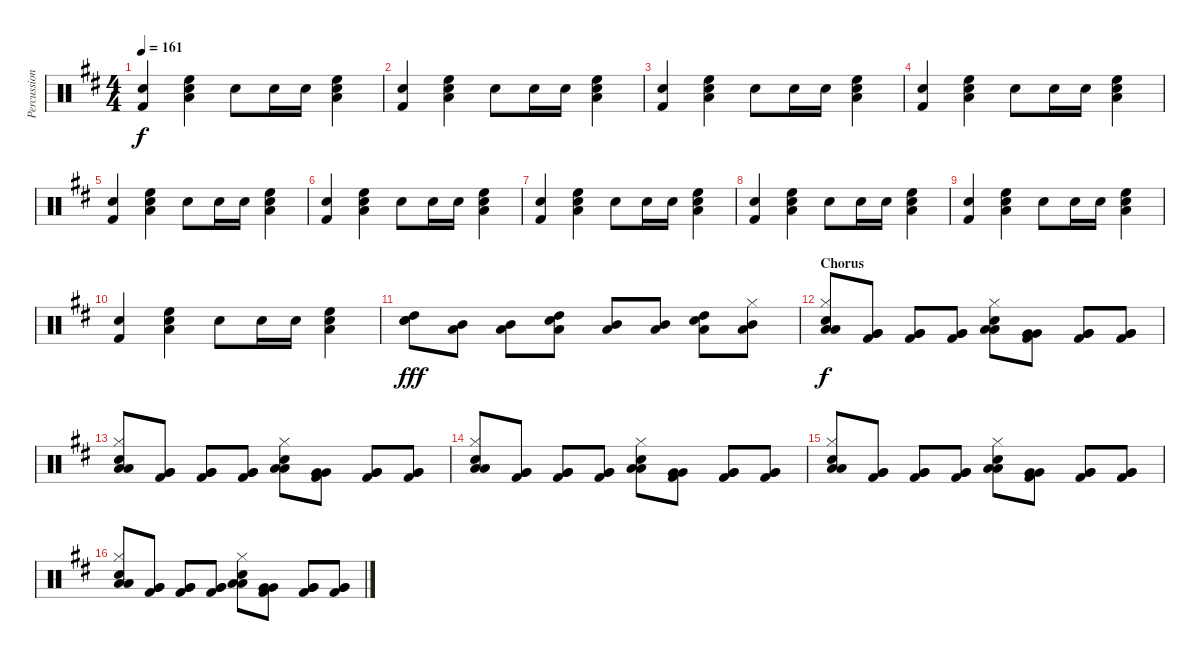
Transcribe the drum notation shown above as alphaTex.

\track ("Percussion" "Percussion") {instrument percussion}
\staff {score}
\articulation defaults
\ts (4 4)
\tempo 161
\clef neutral
\ks d
("Kick (hit) 2" "Electric Snare (hit)").4{dy f} ("Low Tom (hit)" "High Floor Tom (hit)" "Electric Snare (hit)").4 "Electric Snare (hit)".8 "Electric Snare (hit)".16 "Electric Snare (hit)".16 ("Low Tom (hit)" "High Floor Tom (hit)" "Electric Snare (hit)").4 |
("Kick (hit) 2" "Electric Snare (hit)").4 ("Low Tom (hit)" "High Floor Tom (hit)" "Electric Snare (hit)").4 "Electric Snare (hit)".8 "Electric Snare (hit)".16 "Electric Snare (hit)".16 ("Low Tom (hit)" "High Floor Tom (hit)" "Electric Snare (hit)").4 |
("Kick (hit) 2" "Electric Snare (hit)").4 ("Low Tom (hit)" "High Floor Tom (hit)" "Electric Snare (hit)").4 "Electric Snare (hit)".8 "Electric Snare (hit)".16 "Electric Snare (hit)".16 ("Low Tom (hit)" "High Floor Tom (hit)" "Electric Snare (hit)").4 |
("Kick (hit) 2" "Electric Snare (hit)").4 ("Low Tom (hit)" "High Floor Tom (hit)" "Electric Snare (hit)").4 "Electric Snare (hit)".8 "Electric Snare (hit)".16 "Electric Snare (hit)".16 ("Low Tom (hit)" "High Floor Tom (hit)" "Electric Snare (hit)").4 |
("Kick (hit) 2" "Electric Snare (hit)").4 ("Low Tom (hit)" "High Floor Tom (hit)" "Electric Snare (hit)").4 "Electric Snare (hit)".8 "Electric Snare (hit)".16 "Electric Snare (hit)".16 ("Low Tom (hit)" "High Floor Tom (hit)" "Electric Snare (hit)").4 |
("Kick (hit) 2" "Electric Snare (hit)").4 ("Low Tom (hit)" "High Floor Tom (hit)" "Electric Snare (hit)").4 "Electric Snare (hit)".8 "Electric Snare (hit)".16 "Electric Snare (hit)".16 ("Low Tom (hit)" "High Floor Tom (hit)" "Electric Snare (hit)").4 |
("Kick (hit) 2" "Electric Snare (hit)").4 ("Low Tom (hit)" "High Floor Tom (hit)" "Electric Snare (hit)").4 "Electric Snare (hit)".8 "Electric Snare (hit)".16 "Electric Snare (hit)".16 ("Low Tom (hit)" "High Floor Tom (hit)" "Electric Snare (hit)").4 |
("Kick (hit) 2" "Electric Snare (hit)").4 ("Low Tom (hit)" "High Floor Tom (hit)" "Electric Snare (hit)").4 "Electric Snare (hit)".8 "Electric Snare (hit)".16 "Electric Snare (hit)".16 ("Low Tom (hit)" "High Floor Tom (hit)" "Electric Snare (hit)").4 |
("Kick (hit) 2" "Electric Snare (hit)").4 ("Low Tom (hit)" "High Floor Tom (hit)" "Electric Snare (hit)").4 "Electric Snare (hit)".8 "Electric Snare (hit)".16 "Electric Snare (hit)".16 ("Low Tom (hit)" "High Floor Tom (hit)" "Electric Snare (hit)").4 |
("Kick (hit) 2" "Electric Snare (hit)").4 ("Low Tom (hit)" "High Floor Tom (hit)" "Electric Snare (hit)").4 "Electric Snare (hit)".8 "Electric Snare (hit)".16 "Electric Snare (hit)".16 ("Low Tom (hit)" "High Floor Tom (hit)" "Electric Snare (hit)").4 |
("Electric Snare (hit)" "Electric Snare (hit)" "High Tom (hit)").8{dy fff} ("Mid Tom (hit)" "Low Tom (hit)").8 ("Mid Tom (hit)" "Low Tom (hit)").8 ("Electric Snare (hit)" "Low Tom (hit)" "High Tom (hit)").8 ("Mid Tom (hit)" "Low Tom (hit)").8 ("Mid Tom (hit)" "Low Tom (hit)").8 ("Electric Snare (hit)" "Low Tom (hit)" "High Tom (hit)").8 ("Hi-Hat (closed)" "Mid Tom (hit)" "Low Tom (hit)").8 |
\section ("" "Chorus")
("Hi-Hat (closed)" "Low Floor Tom (hit)" "Low Floor Tom (hit)" "Electric Snare (hit)").8{dy f} ("Kick (hit) 2" "Very Low Tom (hit)" "Very Low Tom (hit)").8 ("Kick (hit) 2" "Very Low Tom (hit)" "Very Low Tom (hit)").8 ("Kick (hit) 2" "Very Low Tom (hit)" "Very Low Tom (hit)").8 ("Hi-Hat (closed)" "Low Tom (hit)" "Low Tom (hit)" "Electric Snare (hit)").8 ("Kick (hit) 2" "Very Low Tom (hit)" "Very Low Tom (hit)").8 ("Kick (hit) 2" "Very Low Tom (hit)" "Very Low Tom (hit)").8 ("Kick (hit) 2" "Very Low Tom (hit)" "Very Low Tom (hit)").8 |
("Hi-Hat (closed)" "Low Floor Tom (hit)" "Low Floor Tom (hit)" "Electric Snare (hit)").8 ("Kick (hit) 2" "Very Low Tom (hit)" "Very Low Tom (hit)").8 ("Kick (hit) 2" "Very Low Tom (hit)" "Very Low Tom (hit)").8 ("Kick (hit) 2" "Very Low Tom (hit)" "Very Low Tom (hit)").8 ("Hi-Hat (closed)" "Low Tom (hit)" "Low Tom (hit)" "Electric Snare (hit)").8 ("Kick (hit) 2" "Very Low Tom (hit)" "Very Low Tom (hit)").8 ("Kick (hit) 2" "Very Low Tom (hit)" "Very Low Tom (hit)").8 ("Kick (hit) 2" "Very Low Tom (hit)" "Very Low Tom (hit)").8 |
("Hi-Hat (closed)" "Low Floor Tom (hit)" "Low Floor Tom (hit)" "Electric Snare (hit)").8 ("Kick (hit) 2" "Very Low Tom (hit)" "Very Low Tom (hit)").8 ("Kick (hit) 2" "Very Low Tom (hit)" "Very Low Tom (hit)").8 ("Kick (hit) 2" "Very Low Tom (hit)" "Very Low Tom (hit)").8 ("Hi-Hat (closed)" "Low Tom (hit)" "Low Tom (hit)" "Electric Snare (hit)").8 ("Kick (hit) 2" "Very Low Tom (hit)" "Very Low Tom (hit)").8 ("Kick (hit) 2" "Very Low Tom (hit)" "Very Low Tom (hit)").8 ("Kick (hit) 2" "Very Low Tom (hit)" "Very Low Tom (hit)").8 |
("Hi-Hat (closed)" "Low Floor Tom (hit)" "Low Floor Tom (hit)" "Electric Snare (hit)").8 ("Kick (hit) 2" "Very Low Tom (hit)" "Very Low Tom (hit)").8 ("Kick (hit) 2" "Very Low Tom (hit)" "Very Low Tom (hit)").8 ("Kick (hit) 2" "Very Low Tom (hit)" "Very Low Tom (hit)").8 ("Hi-Hat (closed)" "Low Tom (hit)" "Low Tom (hit)" "Electric Snare (hit)").8 ("Kick (hit) 2" "Very Low Tom (hit)" "Very Low Tom (hit)").8 ("Kick (hit) 2" "Very Low Tom (hit)" "Very Low Tom (hit)").8 ("Kick (hit) 2" "Very Low Tom (hit)" "Very Low Tom (hit)").8 |
("Hi-Hat (closed)" "Low Floor Tom (hit)" "Low Floor Tom (hit)" "Electric Snare (hit)").8 ("Kick (hit) 2" "Very Low Tom (hit)" "Very Low Tom (hit)").8 ("Kick (hit) 2" "Very Low Tom (hit)" "Very Low Tom (hit)").8 ("Kick (hit) 2" "Very Low Tom (hit)" "Very Low Tom (hit)").8 ("Hi-Hat (closed)" "Low Tom (hit)" "Low Tom (hit)" "Electric Snare (hit)").8 ("Kick (hit) 2" "Very Low Tom (hit)" "Very Low Tom (hit)").8 ("Kick (hit) 2" "Very Low Tom (hit)" "Very Low Tom (hit)").8 ("Kick (hit) 2" "Very Low Tom (hit)" "Very Low Tom (hit)").8
